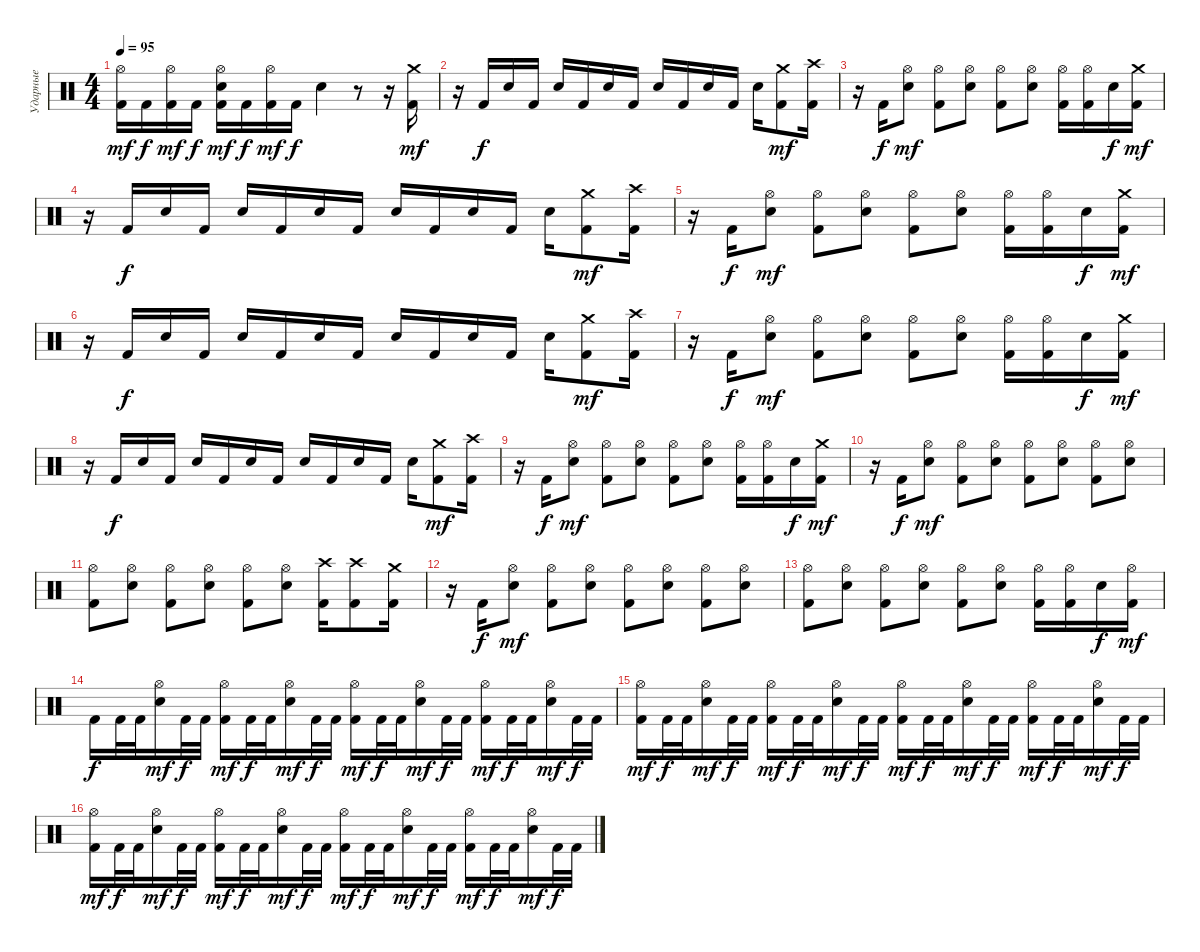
\track ("Ударные" "Ударные") {instrument percussion}
\staff {score}
\articulation defaults
\ts (4 4)
\tempo 95
\clef neutral
\ks c
("Hi-Hat (open)" "Kick (hit) 2").16{dy mf} "Kick (hit) 2".16{dy f} ("Hi-Hat (open)" "Kick (hit) 2").16{dy mf} "Kick (hit) 2".16{dy f} ("Hi-Hat (open)" "Kick (hit) 2" "Snare (hit) 2").16{dy mf} "Kick (hit) 2".16{dy f} ("Hi-Hat (open)" "Kick (hit) 2").16{dy mf} "Kick (hit) 2".16{dy f} "Snare (hit) 2".4 r.8 r.16 ("Crash medium (hit)" "Kick (hit) 2").16{dy mf} |
r.16 "Kick (hit) 2".16{dy f} "Snare (hit) 2".16 "Kick (hit) 2".16 "Snare (hit) 2".16 "Kick (hit) 2".16 "Snare (hit) 2".16 "Kick (hit) 2".16 "Snare (hit) 2".16 "Kick (hit) 2".16 "Snare (hit) 2".16 "Kick (hit) 2".16 "Snare (hit) 2".16 ("Crash medium (hit)" "Kick (hit) 2").8{dy mf} ("Crash high (hit)" "Kick (hit) 2").16 |
r.16 "Kick (hit) 2".16{dy f} ("Hi-Hat (open)" "Snare (hit) 2").8{dy mf} ("Hi-Hat (open)" "Kick (hit) 2").8 ("Hi-Hat (open)" "Snare (hit) 2").8 ("Hi-Hat (open)" "Kick (hit) 2").8 ("Hi-Hat (open)" "Snare (hit) 2").8 ("Hi-Hat (open)" "Kick (hit) 2").16 ("Hi-Hat (open)" "Kick (hit) 2").16 "Snare (hit) 2".16{dy f} ("Crash medium (hit)" "Kick (hit) 2").16{dy mf} |
r.16 "Kick (hit) 2".16{dy f} "Snare (hit) 2".16 "Kick (hit) 2".16 "Snare (hit) 2".16 "Kick (hit) 2".16 "Snare (hit) 2".16 "Kick (hit) 2".16 "Snare (hit) 2".16 "Kick (hit) 2".16 "Snare (hit) 2".16 "Kick (hit) 2".16 "Snare (hit) 2".16 ("Crash medium (hit)" "Kick (hit) 2").8{dy mf} ("Crash high (hit)" "Kick (hit) 2").16 |
r.16 "Kick (hit) 2".16{dy f} ("Hi-Hat (open)" "Snare (hit) 2").8{dy mf} ("Hi-Hat (open)" "Kick (hit) 2").8 ("Hi-Hat (open)" "Snare (hit) 2").8 ("Hi-Hat (open)" "Kick (hit) 2").8 ("Hi-Hat (open)" "Snare (hit) 2").8 ("Hi-Hat (open)" "Kick (hit) 2").16 ("Hi-Hat (open)" "Kick (hit) 2").16 "Snare (hit) 2".16{dy f} ("Crash medium (hit)" "Kick (hit) 2").16{dy mf} |
r.16 "Kick (hit) 2".16{dy f} "Snare (hit) 2".16 "Kick (hit) 2".16 "Snare (hit) 2".16 "Kick (hit) 2".16 "Snare (hit) 2".16 "Kick (hit) 2".16 "Snare (hit) 2".16 "Kick (hit) 2".16 "Snare (hit) 2".16 "Kick (hit) 2".16 "Snare (hit) 2".16 ("Crash medium (hit)" "Kick (hit) 2").8{dy mf} ("Crash high (hit)" "Kick (hit) 2").16 |
r.16 "Kick (hit) 2".16{dy f} ("Hi-Hat (open)" "Snare (hit) 2").8{dy mf} ("Hi-Hat (open)" "Kick (hit) 2").8 ("Hi-Hat (open)" "Snare (hit) 2").8 ("Hi-Hat (open)" "Kick (hit) 2").8 ("Hi-Hat (open)" "Snare (hit) 2").8 ("Hi-Hat (open)" "Kick (hit) 2").16 ("Hi-Hat (open)" "Kick (hit) 2").16 "Snare (hit) 2".16{dy f} ("Crash medium (hit)" "Kick (hit) 2").16{dy mf} |
r.16 "Kick (hit) 2".16{dy f} "Snare (hit) 2".16 "Kick (hit) 2".16 "Snare (hit) 2".16 "Kick (hit) 2".16 "Snare (hit) 2".16 "Kick (hit) 2".16 "Snare (hit) 2".16 "Kick (hit) 2".16 "Snare (hit) 2".16 "Kick (hit) 2".16 "Snare (hit) 2".16 ("Crash medium (hit)" "Kick (hit) 2").8{dy mf} ("Crash high (hit)" "Kick (hit) 2").16 |
r.16 "Kick (hit) 2".16{dy f} ("Hi-Hat (open)" "Snare (hit) 2").8{dy mf} ("Hi-Hat (open)" "Kick (hit) 2").8 ("Hi-Hat (open)" "Snare (hit) 2").8 ("Hi-Hat (open)" "Kick (hit) 2").8 ("Hi-Hat (open)" "Snare (hit) 2").8 ("Hi-Hat (open)" "Kick (hit) 2").16 ("Hi-Hat (open)" "Kick (hit) 2").16 "Snare (hit) 2".16{dy f} ("Crash medium (hit)" "Kick (hit) 2").16{dy mf} |
r.16 "Kick (hit) 2".16{dy f} ("Hi-Hat (open)" "Snare (hit) 2").8{dy mf} ("Hi-Hat (open)" "Kick (hit) 2").8 ("Hi-Hat (open)" "Snare (hit) 2").8 ("Hi-Hat (open)" "Kick (hit) 2").8 ("Hi-Hat (open)" "Snare (hit) 2").8 ("Hi-Hat (open)" "Kick (hit) 2").8 ("Hi-Hat (open)" "Snare (hit) 2").8 |
("Hi-Hat (open)" "Kick (hit) 2").8 ("Hi-Hat (open)" "Snare (hit) 2").8 ("Hi-Hat (open)" "Kick (hit) 2").8 ("Hi-Hat (open)" "Snare (hit) 2").8 ("Hi-Hat (open)" "Kick (hit) 2").8 ("Hi-Hat (open)" "Snare (hit) 2").8 ("Crash high (hit)" "Kick (hit) 2").16 ("Crash high (hit)" "Kick (hit) 2").8 ("Crash medium (hit)" "Kick (hit) 2").16 |
r.16 "Kick (hit) 2".16{dy f} ("Hi-Hat (open)" "Snare (hit) 2").8{dy mf} ("Hi-Hat (open)" "Kick (hit) 2").8 ("Hi-Hat (open)" "Snare (hit) 2").8 ("Hi-Hat (open)" "Kick (hit) 2").8 ("Hi-Hat (open)" "Snare (hit) 2").8 ("Hi-Hat (open)" "Kick (hit) 2").8 ("Hi-Hat (open)" "Snare (hit) 2").8 |
("Hi-Hat (open)" "Kick (hit) 2").8 ("Hi-Hat (open)" "Snare (hit) 2").8 ("Hi-Hat (open)" "Kick (hit) 2").8 ("Hi-Hat (open)" "Snare (hit) 2").8 ("Hi-Hat (open)" "Kick (hit) 2").8 ("Hi-Hat (open)" "Snare (hit) 2").8 ("Hi-Hat (open)" "Kick (hit) 2").16 ("Hi-Hat (open)" "Kick (hit) 2").16 "Snare (hit) 2".16{dy f} ("Hi-Hat (open)" "Kick (hit) 2").16{dy mf} |
"Kick (hit) 2".16{dy f} "Kick (hit) 2".32 "Kick (hit) 2".32 ("Hi-Hat (open)" "Snare (hit) 2").16{dy mf} "Kick (hit) 2".32{dy f} "Kick (hit) 2".32 ("Hi-Hat (open)" "Kick (hit) 2").16{dy mf} "Kick (hit) 2".32{dy f} "Kick (hit) 2".32 ("Hi-Hat (open)" "Snare (hit) 2").16{dy mf} "Kick (hit) 2".32{dy f} "Kick (hit) 2".32 ("Hi-Hat (open)" "Kick (hit) 2").16{dy mf} "Kick (hit) 2".32{dy f} "Kick (hit) 2".32 ("Hi-Hat (open)" "Snare (hit) 2").16{dy mf} "Kick (hit) 2".32{dy f} "Kick (hit) 2".32 ("Hi-Hat (open)" "Kick (hit) 2").16{dy mf} "Kick (hit) 2".32{dy f} "Kick (hit) 2".32 ("Hi-Hat (open)" "Snare (hit) 2").16{dy mf} "Kick (hit) 2".32{dy f} "Kick (hit) 2".32 |
("Hi-Hat (open)" "Kick (hit) 2").16{dy mf} "Kick (hit) 2".32{dy f} "Kick (hit) 2".32 ("Hi-Hat (open)" "Snare (hit) 2").16{dy mf} "Kick (hit) 2".32{dy f} "Kick (hit) 2".32 ("Hi-Hat (open)" "Kick (hit) 2").16{dy mf} "Kick (hit) 2".32{dy f} "Kick (hit) 2".32 ("Hi-Hat (open)" "Snare (hit) 2").16{dy mf} "Kick (hit) 2".32{dy f} "Kick (hit) 2".32 ("Hi-Hat (open)" "Kick (hit) 2").16{dy mf} "Kick (hit) 2".32{dy f} "Kick (hit) 2".32 ("Hi-Hat (open)" "Snare (hit) 2").16{dy mf} "Kick (hit) 2".32{dy f} "Kick (hit) 2".32 ("Hi-Hat (open)" "Kick (hit) 2").16{dy mf} "Kick (hit) 2".32{dy f} "Kick (hit) 2".32 ("Hi-Hat (open)" "Snare (hit) 2").16{dy mf} "Kick (hit) 2".32{dy f} "Kick (hit) 2".32 |
("Hi-Hat (open)" "Kick (hit) 2").16{dy mf} "Kick (hit) 2".32{dy f} "Kick (hit) 2".32 ("Hi-Hat (open)" "Snare (hit) 2").16{dy mf} "Kick (hit) 2".32{dy f} "Kick (hit) 2".32 ("Hi-Hat (open)" "Kick (hit) 2").16{dy mf} "Kick (hit) 2".32{dy f} "Kick (hit) 2".32 ("Hi-Hat (open)" "Snare (hit) 2").16{dy mf} "Kick (hit) 2".32{dy f} "Kick (hit) 2".32 ("Hi-Hat (open)" "Kick (hit) 2").16{dy mf} "Kick (hit) 2".32{dy f} "Kick (hit) 2".32 ("Hi-Hat (open)" "Snare (hit) 2").16{dy mf} "Kick (hit) 2".32{dy f} "Kick (hit) 2".32 ("Hi-Hat (open)" "Kick (hit) 2").16{dy mf} "Kick (hit) 2".32{dy f} "Kick (hit) 2".32 ("Hi-Hat (open)" "Snare (hit) 2").16{dy mf} "Kick (hit) 2".32{dy f} "Kick (hit) 2".32
